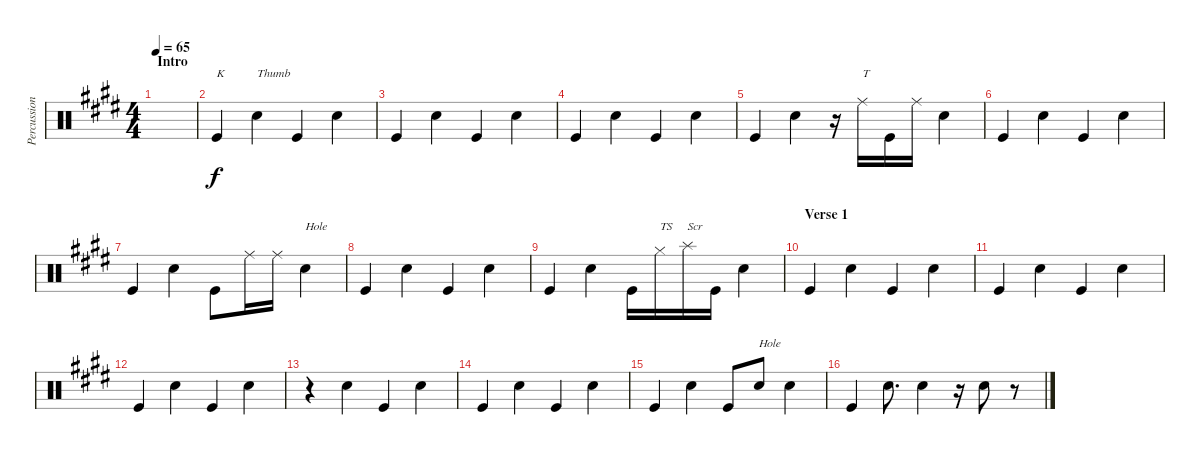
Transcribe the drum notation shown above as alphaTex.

\track ("Percussion" "Percussion") {instrument percussion}
\staff {score}
\articulation defaults
\ts (4 4)
\section ("" "Intro")
\tempo 65
\clef neutral
\ks e
|
"Kick (hit)".4{txt "K"} "Snare (hit) 2".4{txt "Thumb"} "Kick (hit)".4 "Snare (hit) 2".4 |
"Kick (hit)".4 "Snare (hit) 2".4 "Kick (hit)".4 "Snare (hit) 2".4 |
"Kick (hit)".4 "Snare (hit) 2".4 "Kick (hit)".4 "Snare (hit) 2".4 |
"Kick (hit)".4 "Snare (hit) 2".4 r.16 "Ride (middle)".16{txt "T"} "Kick (hit)".16 "Ride (middle)".16 "Snare (hit) 2".4 |
"Kick (hit)".4 "Snare (hit) 2".4 "Kick (hit)".4 "Snare (hit) 2".4 |
"Kick (hit)".4 "Snare (hit) 2".4 "Kick (hit)".8 "Ride (middle)".16 "Ride (middle)".16 "Snare (hit) 2".4{txt "Hole"} |
"Kick (hit)".4 "Snare (hit) 2".4 "Kick (hit)".4 "Snare (hit) 2".4 |
"Kick (hit)".4 "Snare (hit) 2".4 "Kick (hit)".16 "Hi-Hat (closed)".16{txt "TS"} "Splash (hit)".16{txt "Scr"} "Kick (hit)".16 "Snare (hit) 2".4 |
\section ("" "Verse 1")
"Kick (hit)".4 "Snare (hit) 2".4 "Kick (hit)".4 "Snare (hit) 2".4 |
"Kick (hit)".4 "Snare (hit) 2".4 "Kick (hit)".4 "Snare (hit) 2".4 |
"Kick (hit)".4 "Snare (hit) 2".4 "Kick (hit)".4 "Snare (hit) 2".4 |
r.4 "Snare (hit) 2".4 "Kick (hit)".4 "Snare (hit) 2".4 |
"Kick (hit)".4 "Snare (hit) 2".4 "Kick (hit)".4 "Snare (hit) 2".4 |
"Kick (hit)".4 "Snare (hit) 2".4 "Kick (hit)".8 "Snare (hit) 2".8{txt "Hole"} "Snare (hit) 2".4 |
"Kick (hit)".4 "Snare (hit) 2".8{d} "Snare (hit) 2".4 r.16 "Snare (hit) 2".8 r.8
